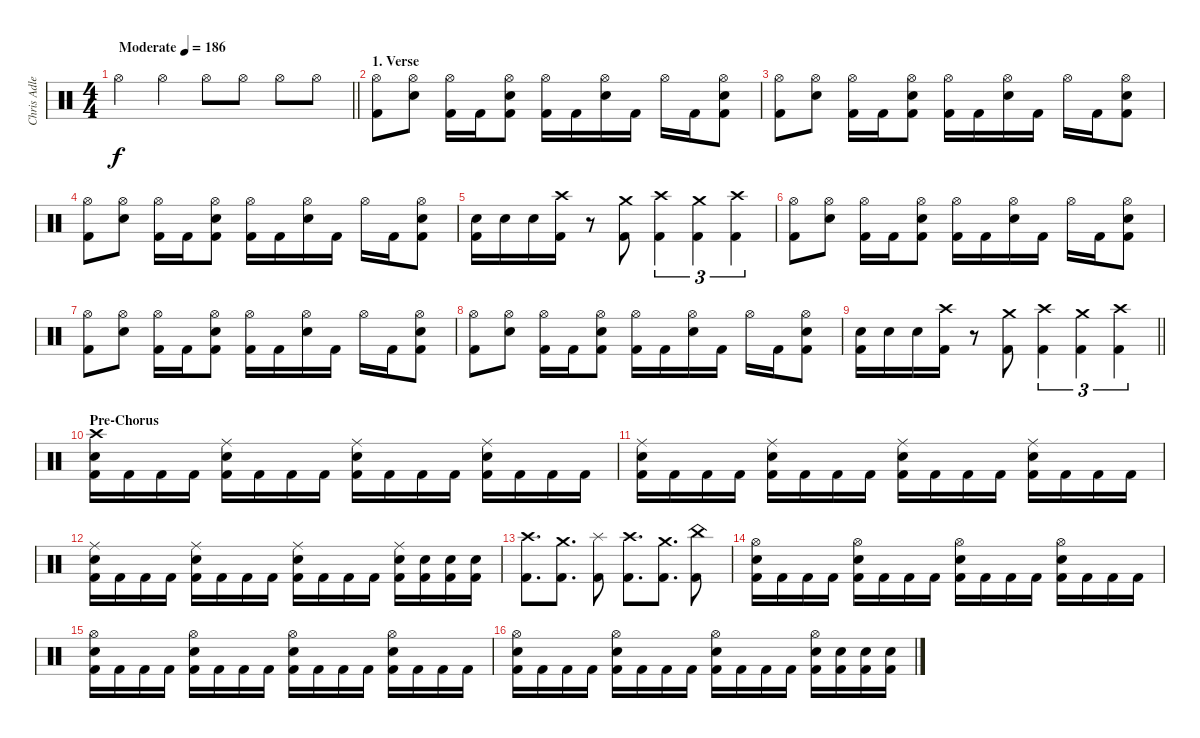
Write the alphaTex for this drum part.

\track ("Chris Adler (Drums)" "Chris Adle") {instrument percussion}
\staff {score}
\articulation defaults
\ts (4 4)
\tempo (186 "Moderate")
\clef neutral
\barLineRight lightlight
\ks c "Hi-Hat (open)".4{dy f} "Hi-Hat (open)".4 "Hi-Hat (open)".8 "Hi-Hat (open)".8 "Hi-Hat (open)".8 "Hi-Hat (open)".8
|
\section ("" "1. Verse")
("Hi-Hat (open)" "Kick (hit) 2").8 ("Hi-Hat (open)" "Snare (hit) 2").8 ("Hi-Hat (open)" "Kick (hit) 2").16 "Kick (hit) 2".16 ("Hi-Hat (open)" "Snare (hit) 2" "Kick (hit) 2").8 ("Hi-Hat (open)" "Kick (hit) 2").16 "Kick (hit) 2".16 ("Hi-Hat (open)" "Snare (hit) 2").16 "Kick (hit) 2".16 "Hi-Hat (open)".16 "Kick (hit) 2".16 ("Hi-Hat (open)" "Snare (hit) 2" "Kick (hit) 2").8 |
("Hi-Hat (open)" "Kick (hit) 2").8 ("Hi-Hat (open)" "Snare (hit) 2").8 ("Hi-Hat (open)" "Kick (hit) 2").16 "Kick (hit) 2".16 ("Hi-Hat (open)" "Snare (hit) 2" "Kick (hit) 2").8 ("Hi-Hat (open)" "Kick (hit) 2").16 "Kick (hit) 2".16 ("Hi-Hat (open)" "Snare (hit) 2").16 "Kick (hit) 2".16 "Hi-Hat (open)".16 "Kick (hit) 2".16 ("Hi-Hat (open)" "Snare (hit) 2" "Kick (hit) 2").8 |
("Hi-Hat (open)" "Kick (hit) 2").8 ("Hi-Hat (open)" "Snare (hit) 2").8 ("Hi-Hat (open)" "Kick (hit) 2").16 "Kick (hit) 2".16 ("Hi-Hat (open)" "Snare (hit) 2" "Kick (hit) 2").8 ("Hi-Hat (open)" "Kick (hit) 2").16 "Kick (hit) 2".16 ("Hi-Hat (open)" "Snare (hit) 2").16 "Kick (hit) 2".16 "Hi-Hat (open)".16 "Kick (hit) 2".16 ("Hi-Hat (open)" "Snare (hit) 2" "Kick (hit) 2").8 |
("Snare (hit) 2" "Kick (hit) 2").16 "Snare (hit) 2".16 "Snare (hit) 2".16 ("Crash high (hit)" "Kick (hit) 2").16 r.8 ("Crash medium (hit)" "Kick (hit) 2").8 ("Crash high (hit)" "Kick (hit) 2").4{tu (3 2)} ("Crash medium (hit)" "Kick (hit) 2").4{tu (3 2)} ("Crash high (hit)" "Kick (hit) 2").4{tu (3 2)} |
("Hi-Hat (open)" "Kick (hit) 2").8 ("Hi-Hat (open)" "Snare (hit) 2").8 ("Hi-Hat (open)" "Kick (hit) 2").16 "Kick (hit) 2".16 ("Hi-Hat (open)" "Snare (hit) 2" "Kick (hit) 2").8 ("Hi-Hat (open)" "Kick (hit) 2").16 "Kick (hit) 2".16 ("Hi-Hat (open)" "Snare (hit) 2").16 "Kick (hit) 2".16 "Hi-Hat (open)".16 "Kick (hit) 2".16 ("Hi-Hat (open)" "Snare (hit) 2" "Kick (hit) 2").8 |
("Hi-Hat (open)" "Kick (hit) 2").8 ("Hi-Hat (open)" "Snare (hit) 2").8 ("Hi-Hat (open)" "Kick (hit) 2").16 "Kick (hit) 2".16 ("Hi-Hat (open)" "Snare (hit) 2" "Kick (hit) 2").8 ("Hi-Hat (open)" "Kick (hit) 2").16 "Kick (hit) 2".16 ("Hi-Hat (open)" "Snare (hit) 2").16 "Kick (hit) 2".16 "Hi-Hat (open)".16 "Kick (hit) 2".16 ("Hi-Hat (open)" "Snare (hit) 2" "Kick (hit) 2").8 |
("Hi-Hat (open)" "Kick (hit) 2").8 ("Hi-Hat (open)" "Snare (hit) 2").8 ("Hi-Hat (open)" "Kick (hit) 2").16 "Kick (hit) 2".16 ("Hi-Hat (open)" "Snare (hit) 2" "Kick (hit) 2").8 ("Hi-Hat (open)" "Kick (hit) 2").16 "Kick (hit) 2".16 ("Hi-Hat (open)" "Snare (hit) 2").16 "Kick (hit) 2".16 "Hi-Hat (open)".16 "Kick (hit) 2".16 ("Hi-Hat (open)" "Snare (hit) 2" "Kick (hit) 2").8 |
\barLineRight lightlight
("Snare (hit) 2" "Kick (hit) 2").16 "Snare (hit) 2".16 "Snare (hit) 2".16 ("Crash high (hit)" "Kick (hit) 2").16 r.8 ("Crash medium (hit)" "Kick (hit) 2").8 ("Crash high (hit)" "Kick (hit) 2").4{tu (3 2)} ("Crash medium (hit)" "Kick (hit) 2").4{tu (3 2)} ("Crash high (hit)" "Kick (hit) 2").4{tu (3 2)} |
\section ("" "Pre-Chorus")
("Crash high (hit)" "Snare (hit) 2" "Kick (hit) 2").16 "Kick (hit) 2".16 "Kick (hit) 2".16 "Kick (hit) 2".16 ("Ride (middle)" "Snare (hit) 2" "Kick (hit) 2").16 "Kick (hit) 2".16 "Kick (hit) 2".16 "Kick (hit) 2".16 ("Ride (middle)" "Snare (hit) 2" "Kick (hit) 2").16 "Kick (hit) 2".16 "Kick (hit) 2".16 "Kick (hit) 2".16 ("Ride (middle)" "Snare (hit) 2" "Kick (hit) 2").16 "Kick (hit) 2".16 "Kick (hit) 2".16 "Kick (hit) 2".16 |
("Ride (middle)" "Snare (hit) 2" "Kick (hit) 2").16 "Kick (hit) 2".16 "Kick (hit) 2".16 "Kick (hit) 2".16 ("Ride (middle)" "Snare (hit) 2" "Kick (hit) 2").16 "Kick (hit) 2".16 "Kick (hit) 2".16 "Kick (hit) 2".16 ("Ride (middle)" "Snare (hit) 2" "Kick (hit) 2").16 "Kick (hit) 2".16 "Kick (hit) 2".16 "Kick (hit) 2".16 ("Ride (middle)" "Snare (hit) 2" "Kick (hit) 2").16 "Kick (hit) 2".16 "Kick (hit) 2".16 "Kick (hit) 2".16 |
("Ride (middle)" "Snare (hit) 2" "Kick (hit) 2").16 "Kick (hit) 2".16 "Kick (hit) 2".16 "Kick (hit) 2".16 ("Ride (middle)" "Snare (hit) 2" "Kick (hit) 2").16 "Kick (hit) 2".16 "Kick (hit) 2".16 "Kick (hit) 2".16 ("Ride (middle)" "Snare (hit) 2" "Kick (hit) 2").16 "Kick (hit) 2".16 "Kick (hit) 2".16 "Kick (hit) 2".16 ("Ride (middle)" "Snare (hit) 2" "Kick (hit) 2").16 ("Snare (hit) 2" "Kick (hit) 2").16 ("Snare (hit) 2" "Kick (hit) 2").16 ("Snare (hit) 2" "Kick (hit) 2").16 |
("Crash high (hit)" "Kick (hit) 2").8{d} ("Crash medium (hit)" "Kick (hit) 2").8{d} ("Splash (hit)" "Kick (hit) 2").8 ("Crash high (hit)" "Kick (hit) 2").8{d} ("Crash medium (hit)" "Kick (hit) 2").8{d} ("China (hit)" "Kick (hit) 2").8 |
("Hi-Hat (open)" "Snare (hit) 2" "Kick (hit) 2").16 "Kick (hit) 2".16 "Kick (hit) 2".16 "Kick (hit) 2".16 ("Hi-Hat (open)" "Snare (hit) 2" "Kick (hit) 2").16 "Kick (hit) 2".16 "Kick (hit) 2".16 "Kick (hit) 2".16 ("Hi-Hat (open)" "Snare (hit) 2" "Kick (hit) 2").16 "Kick (hit) 2".16 "Kick (hit) 2".16 "Kick (hit) 2".16 ("Hi-Hat (open)" "Snare (hit) 2" "Kick (hit) 2").16 "Kick (hit) 2".16 "Kick (hit) 2".16 "Kick (hit) 2".16 |
("Hi-Hat (open)" "Snare (hit) 2" "Kick (hit) 2").16 "Kick (hit) 2".16 "Kick (hit) 2".16 "Kick (hit) 2".16 ("Hi-Hat (open)" "Snare (hit) 2" "Kick (hit) 2").16 "Kick (hit) 2".16 "Kick (hit) 2".16 "Kick (hit) 2".16 ("Hi-Hat (open)" "Snare (hit) 2" "Kick (hit) 2").16 "Kick (hit) 2".16 "Kick (hit) 2".16 "Kick (hit) 2".16 ("Hi-Hat (open)" "Snare (hit) 2" "Kick (hit) 2").16 "Kick (hit) 2".16 "Kick (hit) 2".16 "Kick (hit) 2".16 |
("Hi-Hat (open)" "Snare (hit) 2" "Kick (hit) 2").16 "Kick (hit) 2".16 "Kick (hit) 2".16 "Kick (hit) 2".16 ("Hi-Hat (open)" "Snare (hit) 2" "Kick (hit) 2").16 "Kick (hit) 2".16 "Kick (hit) 2".16 "Kick (hit) 2".16 ("Hi-Hat (open)" "Snare (hit) 2" "Kick (hit) 2").16 "Kick (hit) 2".16 "Kick (hit) 2".16 "Kick (hit) 2".16 ("Hi-Hat (open)" "Snare (hit) 2" "Kick (hit) 2").16 ("Snare (hit) 2" "Kick (hit) 2").16 ("Snare (hit) 2" "Kick (hit) 2").16 ("Snare (hit) 2" "Kick (hit) 2").16
